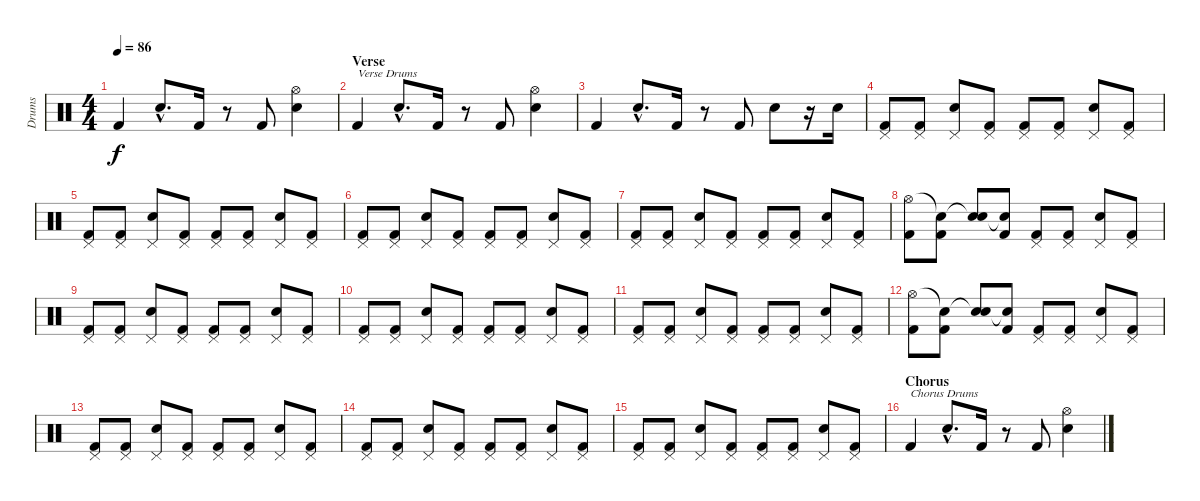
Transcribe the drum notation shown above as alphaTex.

\track ("Drums" "Drums") {instrument percussion}
\staff {score}
\articulation defaults
\ts (4 4)
\tempo 86
\clef neutral
\ks c "Kick (hit) 2".4{dy f} "Snare (hit) 2"{hac}.8{d} "Kick (hit) 2".16
r.8 "Kick (hit) 2".8 ("Hi-Hat (open)" "Snare (hit) 2").4 |
\section ("" "Verse")
"Kick (hit) 2".4{txt "Verse Drums"} "Snare (hit) 2"{hac}.8{d} "Kick (hit) 2".16 r.8 "Kick (hit) 2".8 ("Hi-Hat (open)" "Snare (hit) 2").4 |
"Kick (hit) 2".4 "Snare (hit) 2"{hac}.8{d} "Kick (hit) 2".16 r.8 "Kick (hit) 2".8 "Snare (hit) 2".8 r.16 "Snare (hit) 2".16 |
("Pedal Hi-Hat (hit)" "Kick (hit) 2").8 ("Pedal Hi-Hat (hit)" "Kick (hit) 2").8 ("Pedal Hi-Hat (hit)" "Snare (hit) 2").8 ("Pedal Hi-Hat (hit)" "Kick (hit) 2").8 ("Pedal Hi-Hat (hit)" "Kick (hit) 2").8 ("Pedal Hi-Hat (hit)" "Kick (hit) 2").8 ("Pedal Hi-Hat (hit)" "Snare (hit) 2").8 ("Pedal Hi-Hat (hit)" "Kick (hit) 2").8 |
("Pedal Hi-Hat (hit)" "Kick (hit) 2").8 ("Pedal Hi-Hat (hit)" "Kick (hit) 2").8 ("Pedal Hi-Hat (hit)" "Snare (hit) 2").8 ("Pedal Hi-Hat (hit)" "Kick (hit) 2").8 ("Pedal Hi-Hat (hit)" "Kick (hit) 2").8 ("Pedal Hi-Hat (hit)" "Kick (hit) 2").8 ("Pedal Hi-Hat (hit)" "Snare (hit) 2").8 ("Pedal Hi-Hat (hit)" "Kick (hit) 2").8 |
("Pedal Hi-Hat (hit)" "Kick (hit) 2").8 ("Pedal Hi-Hat (hit)" "Kick (hit) 2").8 ("Pedal Hi-Hat (hit)" "Snare (hit) 2").8 ("Pedal Hi-Hat (hit)" "Kick (hit) 2").8 ("Pedal Hi-Hat (hit)" "Kick (hit) 2").8 ("Pedal Hi-Hat (hit)" "Kick (hit) 2").8 ("Pedal Hi-Hat (hit)" "Snare (hit) 2").8 ("Pedal Hi-Hat (hit)" "Kick (hit) 2").8 |
("Pedal Hi-Hat (hit)" "Kick (hit) 2").8 ("Pedal Hi-Hat (hit)" "Kick (hit) 2").8 ("Pedal Hi-Hat (hit)" "Snare (hit) 2").8 ("Pedal Hi-Hat (hit)" "Kick (hit) 2").8 ("Pedal Hi-Hat (hit)" "Kick (hit) 2").8 ("Pedal Hi-Hat (hit)" "Kick (hit) 2").8 ("Pedal Hi-Hat (hit)" "Snare (hit) 2").8 ("Pedal Hi-Hat (hit)" "Kick (hit) 2").8 |
("Hi-Hat (open)" "Kick (hit) 2").8 ("Snare (hit)"{t} "Kick (hit) 2").8 ("Snare (hit)"{t} "Snare (hit) 2").8 ("Snare (hit)"{t} "Kick (hit) 2").8 ("Pedal Hi-Hat (hit)" "Kick (hit) 2").8 ("Pedal Hi-Hat (hit)" "Kick (hit) 2").8 ("Pedal Hi-Hat (hit)" "Snare (hit) 2").8 ("Pedal Hi-Hat (hit)" "Kick (hit) 2").8 |
("Pedal Hi-Hat (hit)" "Kick (hit) 2").8 ("Pedal Hi-Hat (hit)" "Kick (hit) 2").8 ("Pedal Hi-Hat (hit)" "Snare (hit) 2").8 ("Pedal Hi-Hat (hit)" "Kick (hit) 2").8 ("Pedal Hi-Hat (hit)" "Kick (hit) 2").8 ("Pedal Hi-Hat (hit)" "Kick (hit) 2").8 ("Pedal Hi-Hat (hit)" "Snare (hit) 2").8 ("Pedal Hi-Hat (hit)" "Kick (hit) 2").8 |
("Pedal Hi-Hat (hit)" "Kick (hit) 2").8 ("Pedal Hi-Hat (hit)" "Kick (hit) 2").8 ("Pedal Hi-Hat (hit)" "Snare (hit) 2").8 ("Pedal Hi-Hat (hit)" "Kick (hit) 2").8 ("Pedal Hi-Hat (hit)" "Kick (hit) 2").8 ("Pedal Hi-Hat (hit)" "Kick (hit) 2").8 ("Pedal Hi-Hat (hit)" "Snare (hit) 2").8 ("Pedal Hi-Hat (hit)" "Kick (hit) 2").8 |
("Pedal Hi-Hat (hit)" "Kick (hit) 2").8 ("Pedal Hi-Hat (hit)" "Kick (hit) 2").8 ("Pedal Hi-Hat (hit)" "Snare (hit) 2").8 ("Pedal Hi-Hat (hit)" "Kick (hit) 2").8 ("Pedal Hi-Hat (hit)" "Kick (hit) 2").8 ("Pedal Hi-Hat (hit)" "Kick (hit) 2").8 ("Pedal Hi-Hat (hit)" "Snare (hit) 2").8 ("Pedal Hi-Hat (hit)" "Kick (hit) 2").8 |
("Hi-Hat (open)" "Kick (hit) 2").8 ("Snare (hit)"{t} "Kick (hit) 2").8 ("Snare (hit)"{t} "Snare (hit) 2").8 ("Snare (hit)"{t} "Kick (hit) 2").8 ("Pedal Hi-Hat (hit)" "Kick (hit) 2").8 ("Pedal Hi-Hat (hit)" "Kick (hit) 2").8 ("Pedal Hi-Hat (hit)" "Snare (hit) 2").8 ("Pedal Hi-Hat (hit)" "Kick (hit) 2").8 |
("Pedal Hi-Hat (hit)" "Kick (hit) 2").8 ("Pedal Hi-Hat (hit)" "Kick (hit) 2").8 ("Pedal Hi-Hat (hit)" "Snare (hit) 2").8 ("Pedal Hi-Hat (hit)" "Kick (hit) 2").8 ("Pedal Hi-Hat (hit)" "Kick (hit) 2").8 ("Pedal Hi-Hat (hit)" "Kick (hit) 2").8 ("Pedal Hi-Hat (hit)" "Snare (hit) 2").8 ("Pedal Hi-Hat (hit)" "Kick (hit) 2").8 |
("Pedal Hi-Hat (hit)" "Kick (hit) 2").8 ("Pedal Hi-Hat (hit)" "Kick (hit) 2").8 ("Pedal Hi-Hat (hit)" "Snare (hit) 2").8 ("Pedal Hi-Hat (hit)" "Kick (hit) 2").8 ("Pedal Hi-Hat (hit)" "Kick (hit) 2").8 ("Pedal Hi-Hat (hit)" "Kick (hit) 2").8 ("Pedal Hi-Hat (hit)" "Snare (hit) 2").8 ("Pedal Hi-Hat (hit)" "Kick (hit) 2").8 |
("Pedal Hi-Hat (hit)" "Kick (hit) 2").8 ("Pedal Hi-Hat (hit)" "Kick (hit) 2").8 ("Pedal Hi-Hat (hit)" "Snare (hit) 2").8 ("Pedal Hi-Hat (hit)" "Kick (hit) 2").8 ("Pedal Hi-Hat (hit)" "Kick (hit) 2").8 ("Pedal Hi-Hat (hit)" "Kick (hit) 2").8 ("Pedal Hi-Hat (hit)" "Snare (hit) 2").8 ("Pedal Hi-Hat (hit)" "Kick (hit) 2").8 |
\section ("" "Chorus")
"Kick (hit) 2".4{txt "Chorus Drums"} "Snare (hit) 2"{hac}.8{d} "Kick (hit) 2".16 r.8 "Kick (hit) 2".8 ("Hi-Hat (open)" "Snare (hit) 2").4
